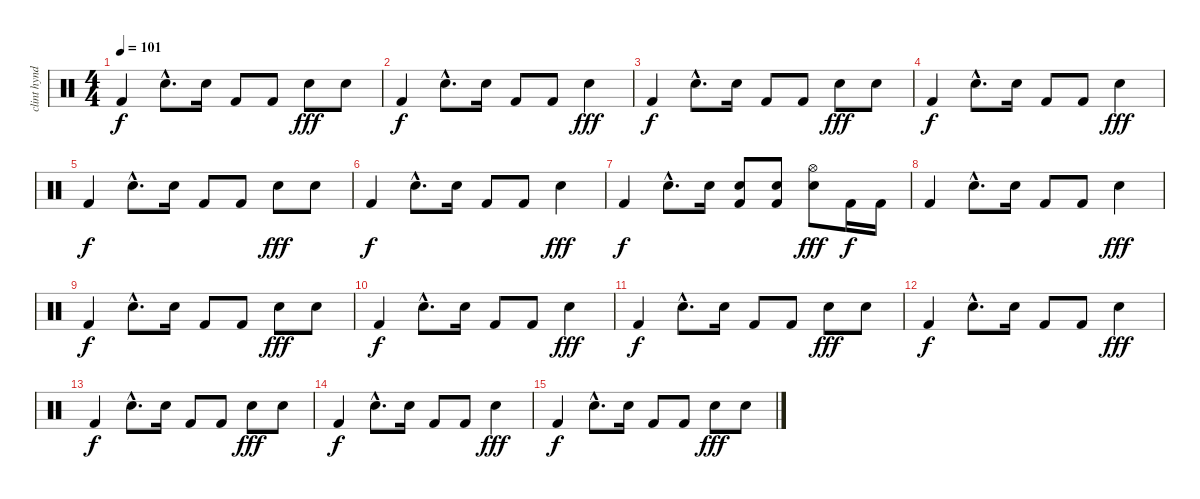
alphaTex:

\track ("clint hyndman" "clint hynd") {instrument percussion}
\staff {score}
\articulation defaults
\ts (4 4)
\tempo 101
\clef neutral
\ks c "Kick (hit) 2".4{dy f} "Electric Snare (hit)"{hac}.8{d} "Electric Snare (hit)".16 "Kick (hit) 2".8 "Kick (hit) 2".8 "Electric Snare (hit)".8{dy fff} "Electric Snare (hit)".8
|
"Kick (hit) 2".4{dy f} "Electric Snare (hit)"{hac}.8{d} "Electric Snare (hit)".16 "Kick (hit) 2".8 "Kick (hit) 2".8 "Electric Snare (hit)".4{dy fff} |
"Kick (hit) 2".4{dy f} "Electric Snare (hit)"{hac}.8{d} "Electric Snare (hit)".16 "Kick (hit) 2".8 "Kick (hit) 2".8 "Electric Snare (hit)".8{dy fff} "Electric Snare (hit)".8 |
"Kick (hit) 2".4{dy f} "Electric Snare (hit)"{hac}.8{d} "Electric Snare (hit)".16 "Kick (hit) 2".8 "Kick (hit) 2".8 "Electric Snare (hit)".4{dy fff} |
"Kick (hit) 2".4{dy f} "Electric Snare (hit)"{hac}.8{d} "Electric Snare (hit)".16 "Kick (hit) 2".8 "Kick (hit) 2".8 "Electric Snare (hit)".8{dy fff} "Electric Snare (hit)".8 |
"Kick (hit) 2".4{dy f} "Electric Snare (hit)"{hac}.8{d} "Electric Snare (hit)".16 "Kick (hit) 2".8 "Kick (hit) 2".8 "Electric Snare (hit)".4{dy fff} |
"Kick (hit) 2".4{dy f} "Electric Snare (hit)"{hac}.8{d} "Electric Snare (hit)".16 ("Electric Snare (hit)" "Kick (hit) 2").8 ("Electric Snare (hit)" "Kick (hit) 2").8 ("Electric Snare (hit)" "Hi-Hat (open)").8{dy fff} "Kick (hit) 2".16{dy f} "Kick (hit) 2".16 |
"Kick (hit) 2".4 "Electric Snare (hit)"{hac}.8{d} "Electric Snare (hit)".16 "Kick (hit) 2".8 "Kick (hit) 2".8 "Electric Snare (hit)".4{dy fff} |
"Kick (hit) 2".4{dy f} "Electric Snare (hit)"{hac}.8{d} "Electric Snare (hit)".16 "Kick (hit) 2".8 "Kick (hit) 2".8 "Electric Snare (hit)".8{dy fff} "Electric Snare (hit)".8 |
"Kick (hit) 2".4{dy f} "Electric Snare (hit)"{hac}.8{d} "Electric Snare (hit)".16 "Kick (hit) 2".8 "Kick (hit) 2".8 "Electric Snare (hit)".4{dy fff} |
"Kick (hit) 2".4{dy f} "Electric Snare (hit)"{hac}.8{d} "Electric Snare (hit)".16 "Kick (hit) 2".8 "Kick (hit) 2".8 "Electric Snare (hit)".8{dy fff} "Electric Snare (hit)".8 |
"Kick (hit) 2".4{dy f} "Electric Snare (hit)"{hac}.8{d} "Electric Snare (hit)".16 "Kick (hit) 2".8 "Kick (hit) 2".8 "Electric Snare (hit)".4{dy fff} |
"Kick (hit) 2".4{dy f} "Electric Snare (hit)"{hac}.8{d} "Electric Snare (hit)".16 "Kick (hit) 2".8 "Kick (hit) 2".8 "Electric Snare (hit)".8{dy fff} "Electric Snare (hit)".8 |
"Kick (hit) 2".4{dy f} "Electric Snare (hit)"{hac}.8{d} "Electric Snare (hit)".16 "Kick (hit) 2".8 "Kick (hit) 2".8 "Electric Snare (hit)".4{dy fff} |
"Kick (hit) 2".4{dy f} "Electric Snare (hit)"{hac}.8{d} "Electric Snare (hit)".16 "Kick (hit) 2".8 "Kick (hit) 2".8 "Electric Snare (hit)".8{dy fff} "Electric Snare (hit)".8
